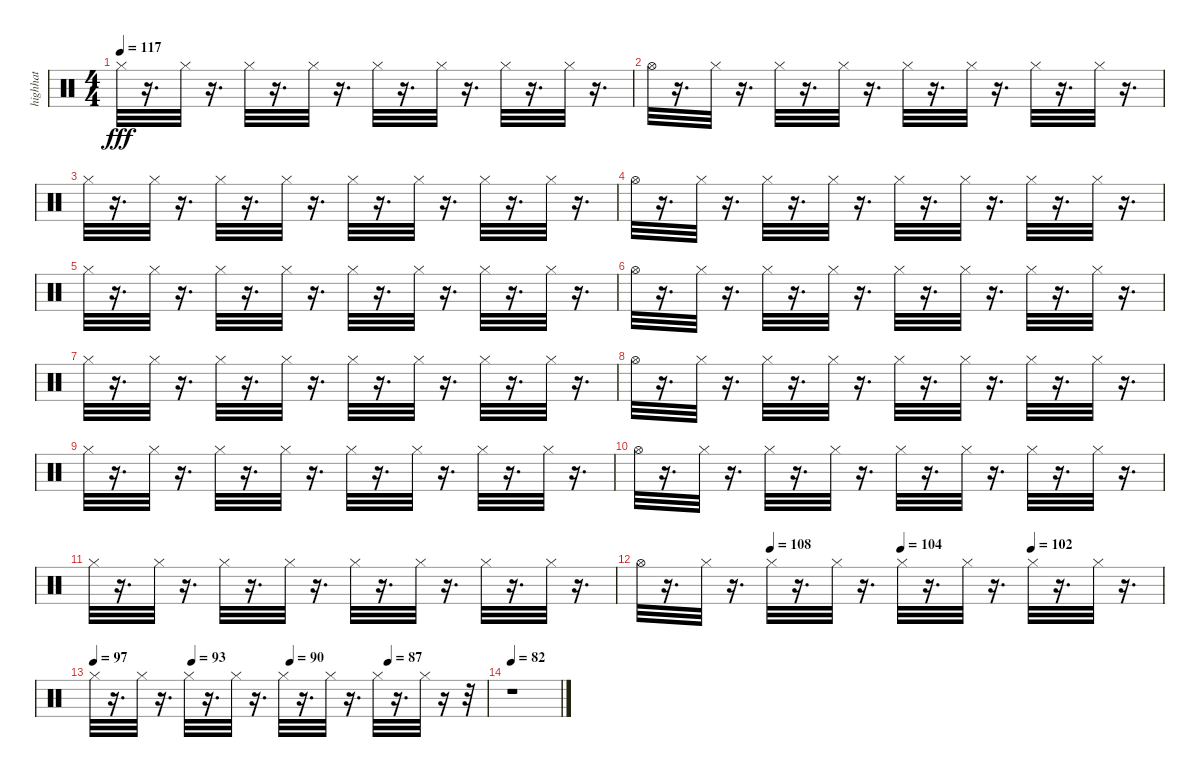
\track ("highhat" "highhat") {instrument percussion}
\staff {score}
\articulation defaults
\ts (4 4)
\tempo 117
\clef neutral
\ks c "Hi-Hat (closed)".32{dy fff}
r.16{d} "Hi-Hat (closed)".32 r.16{d} "Hi-Hat (closed)".32 r.16{d} "Hi-Hat (closed)".32 r.16{d} "Hi-Hat (closed)".32 r.16{d} "Hi-Hat (closed)".32 r.16{d} "Hi-Hat (closed)".32 r.16{d} "Hi-Hat (closed)".32 r.16{d} |
"Hi-Hat (open)".32 r.16{d} "Hi-Hat (closed)".32 r.16{d} "Hi-Hat (closed)".32 r.16{d} "Hi-Hat (closed)".32 r.16{d} "Hi-Hat (closed)".32 r.16{d} "Hi-Hat (closed)".32 r.16{d} "Hi-Hat (closed)".32 r.16{d} "Hi-Hat (closed)".32 r.16{d} |
"Hi-Hat (closed)".32 r.16{d} "Hi-Hat (closed)".32 r.16{d} "Hi-Hat (closed)".32 r.16{d} "Hi-Hat (closed)".32 r.16{d} "Hi-Hat (closed)".32 r.16{d} "Hi-Hat (closed)".32 r.16{d} "Hi-Hat (closed)".32 r.16{d} "Hi-Hat (closed)".32 r.16{d} |
"Hi-Hat (open)".32 r.16{d} "Hi-Hat (closed)".32 r.16{d} "Hi-Hat (closed)".32 r.16{d} "Hi-Hat (closed)".32 r.16{d} "Hi-Hat (closed)".32 r.16{d} "Hi-Hat (closed)".32 r.16{d} "Hi-Hat (closed)".32 r.16{d} "Hi-Hat (closed)".32 r.16{d} |
"Hi-Hat (closed)".32 r.16{d} "Hi-Hat (closed)".32 r.16{d} "Hi-Hat (closed)".32 r.16{d} "Hi-Hat (closed)".32 r.16{d} "Hi-Hat (closed)".32 r.16{d} "Hi-Hat (closed)".32 r.16{d} "Hi-Hat (closed)".32 r.16{d} "Hi-Hat (closed)".32 r.16{d} |
"Hi-Hat (open)".32 r.16{d} "Hi-Hat (closed)".32 r.16{d} "Hi-Hat (closed)".32 r.16{d} "Hi-Hat (closed)".32 r.16{d} "Hi-Hat (closed)".32 r.16{d} "Hi-Hat (closed)".32 r.16{d} "Hi-Hat (closed)".32 r.16{d} "Hi-Hat (closed)".32 r.16{d} |
"Hi-Hat (closed)".32 r.16{d} "Hi-Hat (closed)".32 r.16{d} "Hi-Hat (closed)".32 r.16{d} "Hi-Hat (closed)".32 r.16{d} "Hi-Hat (closed)".32 r.16{d} "Hi-Hat (closed)".32 r.16{d} "Hi-Hat (closed)".32 r.16{d} "Hi-Hat (closed)".32 r.16{d} |
"Hi-Hat (open)".32 r.16{d} "Hi-Hat (closed)".32 r.16{d} "Hi-Hat (closed)".32 r.16{d} "Hi-Hat (closed)".32 r.16{d} "Hi-Hat (closed)".32 r.16{d} "Hi-Hat (closed)".32 r.16{d} "Hi-Hat (closed)".32 r.16{d} "Hi-Hat (closed)".32 r.16{d} |
"Hi-Hat (closed)".32 r.16{d} "Hi-Hat (closed)".32 r.16{d} "Hi-Hat (closed)".32 r.16{d} "Hi-Hat (closed)".32 r.16{d} "Hi-Hat (closed)".32 r.16{d} "Hi-Hat (closed)".32 r.16{d} "Hi-Hat (closed)".32 r.16{d} "Hi-Hat (closed)".32 r.16{d} |
"Hi-Hat (open)".32 r.16{d} "Hi-Hat (closed)".32 r.16{d} "Hi-Hat (closed)".32 r.16{d} "Hi-Hat (closed)".32 r.16{d} "Hi-Hat (closed)".32 r.16{d} "Hi-Hat (closed)".32 r.16{d} "Hi-Hat (closed)".32 r.16{d} "Hi-Hat (closed)".32 r.16{d} |
"Hi-Hat (closed)".32 r.16{d} "Hi-Hat (closed)".32 r.16{d} "Hi-Hat (closed)".32 r.16{d} "Hi-Hat (closed)".32 r.16{d} "Hi-Hat (closed)".32 r.16{d} "Hi-Hat (closed)".32 r.16{d} "Hi-Hat (closed)".32 r.16{d} "Hi-Hat (closed)".32 r.16{d} |
\tempo (108 0.25)
\tempo (104 0.5)
\tempo (102 0.75)
"Hi-Hat (open)".32 r.16{d} "Hi-Hat (closed)".32 r.16{d} "Hi-Hat (closed)".32 r.16{d} "Hi-Hat (closed)".32 r.16{d} "Hi-Hat (closed)".32 r.16{d} "Hi-Hat (closed)".32 r.16{d} "Hi-Hat (closed)".32 r.16{d} "Hi-Hat (closed)".32 r.16{d} |
\tempo 97
\tempo (93 0.25)
\tempo (90 0.5)
\tempo (87 0.75)
"Hi-Hat (closed)".32 r.16{d} "Hi-Hat (closed)".32 r.16{d} "Hi-Hat (closed)".32 r.16{d} "Hi-Hat (closed)".32 r.16{d} "Hi-Hat (closed)".32 r.16{d} "Hi-Hat (closed)".32 r.16{d} "Hi-Hat (closed)".32 r.16{d} "Hi-Hat (closed)".32 r.16 r.32 |
\tempo 82
r.1
